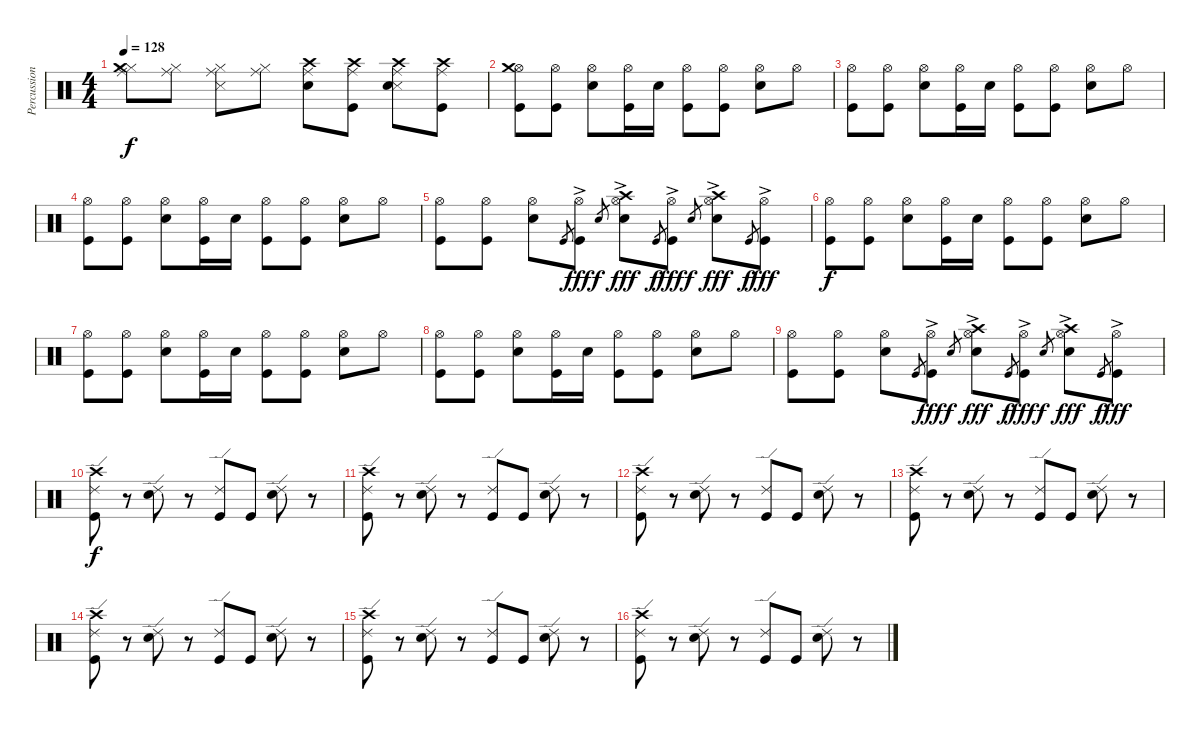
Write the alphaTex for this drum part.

\track ("Percussions" "Percussion") {instrument percussion}
\staff {score}
\articulation defaults
\ts (4 4)
\tempo 128
\clef neutral
\ks c
("Hi-Hat (closed)" "Crash medium (hit)" "Ride (middle)").8{dy f} ("Hi-Hat (closed)" "Ride (middle)").8 ("Hi-Hat (closed)" "Snare (side stick) 3" "Ride (middle)").8 ("Hi-Hat (closed)" "Ride (middle)").8 ("Crash high (hit)" "Electric Snare (hit)" "Ride (middle)").8 ("Crash high (hit)" "Ride (middle)" "Kick (hit)").8 ("Crash high (hit)" "Snare (side stick) 3" "Electric Snare (hit)" "Ride (middle)").8 ("Crash high (hit)" "Ride (middle)" "Kick (hit)").8 |
("Hi-Hat (open)" "Crash medium (hit)" "Kick (hit)").8 ("Hi-Hat (open)" "Kick (hit)").8 ("Hi-Hat (open)" "Electric Snare (hit)").8 ("Hi-Hat (open)" "Kick (hit)").16 "Electric Snare (hit)".16 ("Hi-Hat (open)" "Kick (hit)").8 ("Hi-Hat (open)" "Kick (hit)").8 ("Hi-Hat (open)" "Electric Snare (hit)").8 "Hi-Hat (open)".8 |
("Hi-Hat (open)" "Kick (hit)").8 ("Hi-Hat (open)" "Kick (hit)").8 ("Hi-Hat (open)" "Electric Snare (hit)").8 ("Hi-Hat (open)" "Kick (hit)").16 "Electric Snare (hit)".16 ("Hi-Hat (open)" "Kick (hit)").8 ("Hi-Hat (open)" "Kick (hit)").8 ("Hi-Hat (open)" "Electric Snare (hit)").8 "Hi-Hat (open)".8 |
("Hi-Hat (open)" "Kick (hit)").8 ("Hi-Hat (open)" "Kick (hit)").8 ("Hi-Hat (open)" "Electric Snare (hit)").8 ("Hi-Hat (open)" "Kick (hit)").16 "Electric Snare (hit)".16 ("Hi-Hat (open)" "Kick (hit)").8 ("Hi-Hat (open)" "Kick (hit)").8 ("Hi-Hat (open)" "Electric Snare (hit)").8 "Hi-Hat (open)".8 |
("Hi-Hat (open)" "Kick (hit)").8 ("Hi-Hat (open)" "Kick (hit)").8 ("Hi-Hat (open)" "Electric Snare (hit)").8 "Kick (hit)".8{gr} ("Hi-Hat (open)" "Kick (hit)"{ac}).8{dy fff} "Electric Snare (hit)".8{gr dy f} ("Hi-Hat (open)" "Crash high (hit)" "Electric Snare (hit)"{ac}).8{dy fff} "Kick (hit)".8{gr dy f} ("Hi-Hat (open)" "Kick (hit)"{ac}).8{dy fff} "Electric Snare (hit)".8{gr dy f} ("Hi-Hat (open)" "Crash high (hit)" "Electric Snare (hit)"{ac}).8{dy fff} "Kick (hit)".8{gr dy f} ("Hi-Hat (open)" "Kick (hit)"{ac}).8{dy fff} |
("Hi-Hat (open)" "Kick (hit)").8{dy f} ("Hi-Hat (open)" "Kick (hit)").8 ("Hi-Hat (open)" "Electric Snare (hit)").8 ("Hi-Hat (open)" "Kick (hit)").16 "Electric Snare (hit)".16 ("Hi-Hat (open)" "Kick (hit)").8 ("Hi-Hat (open)" "Kick (hit)").8 ("Hi-Hat (open)" "Electric Snare (hit)").8 "Hi-Hat (open)".8 |
("Hi-Hat (open)" "Kick (hit)").8 ("Hi-Hat (open)" "Kick (hit)").8 ("Hi-Hat (open)" "Electric Snare (hit)").8 ("Hi-Hat (open)" "Kick (hit)").16 "Electric Snare (hit)".16 ("Hi-Hat (open)" "Kick (hit)").8 ("Hi-Hat (open)" "Kick (hit)").8 ("Hi-Hat (open)" "Electric Snare (hit)").8 "Hi-Hat (open)".8 |
("Hi-Hat (open)" "Kick (hit)").8 ("Hi-Hat (open)" "Kick (hit)").8 ("Hi-Hat (open)" "Electric Snare (hit)").8 ("Hi-Hat (open)" "Kick (hit)").16 "Electric Snare (hit)".16 ("Hi-Hat (open)" "Kick (hit)").8 ("Hi-Hat (open)" "Kick (hit)").8 ("Hi-Hat (open)" "Electric Snare (hit)").8 "Hi-Hat (open)".8 |
("Hi-Hat (open)" "Kick (hit)").8 ("Hi-Hat (open)" "Kick (hit)").8 ("Hi-Hat (open)" "Electric Snare (hit)").8 "Kick (hit)".8{gr} ("Hi-Hat (open)" "Kick (hit)"{ac}).8{dy fff} "Electric Snare (hit)".8{gr dy f} ("Hi-Hat (open)" "Crash high (hit)" "Electric Snare (hit)"{ac}).8{dy fff} "Kick (hit)".8{gr dy f} ("Hi-Hat (open)" "Kick (hit)"{ac}).8{dy fff} "Electric Snare (hit)".8{gr dy f} ("Hi-Hat (open)" "Crash high (hit)" "Electric Snare (hit)"{ac}).8{dy fff} "Kick (hit)".8{gr dy f} ("Hi-Hat (open)" "Kick (hit)"{ac}).8{dy fff} |
("Ride (edge) 2" "Crash high (hit)" "Kick (hit)").8{dy f} r.8 ("Ride (edge) 2" "Electric Snare (hit)").8 r.8 ("Ride (edge) 2" "Kick (hit)").8 "Kick (hit)".8 ("Ride (edge) 2" "Electric Snare (hit)").8 r.8 |
("Ride (edge) 2" "Crash high (hit)" "Kick (hit)").8 r.8 ("Ride (edge) 2" "Electric Snare (hit)").8 r.8 ("Ride (edge) 2" "Kick (hit)").8 "Kick (hit)".8 ("Ride (edge) 2" "Electric Snare (hit)").8 r.8 |
("Ride (edge) 2" "Crash high (hit)" "Kick (hit)").8 r.8 ("Ride (edge) 2" "Electric Snare (hit)").8 r.8 ("Ride (edge) 2" "Kick (hit)").8 "Kick (hit)".8 ("Ride (edge) 2" "Electric Snare (hit)").8 r.8 |
("Ride (edge) 2" "Crash high (hit)" "Kick (hit)").8 r.8 ("Ride (edge) 2" "Electric Snare (hit)").8 r.8 ("Ride (edge) 2" "Kick (hit)").8 "Kick (hit)".8 ("Ride (edge) 2" "Electric Snare (hit)").8 r.8 |
("Ride (edge) 2" "Crash high (hit)" "Kick (hit)").8 r.8 ("Ride (edge) 2" "Electric Snare (hit)").8 r.8 ("Ride (edge) 2" "Kick (hit)").8 "Kick (hit)".8 ("Ride (edge) 2" "Electric Snare (hit)").8 r.8 |
("Ride (edge) 2" "Crash high (hit)" "Kick (hit)").8 r.8 ("Ride (edge) 2" "Electric Snare (hit)").8 r.8 ("Ride (edge) 2" "Kick (hit)").8 "Kick (hit)".8 ("Ride (edge) 2" "Electric Snare (hit)").8 r.8 |
("Ride (edge) 2" "Crash high (hit)" "Kick (hit)").8 r.8 ("Ride (edge) 2" "Electric Snare (hit)").8 r.8 ("Ride (edge) 2" "Kick (hit)").8 "Kick (hit)".8 ("Ride (edge) 2" "Electric Snare (hit)").8 r.8
